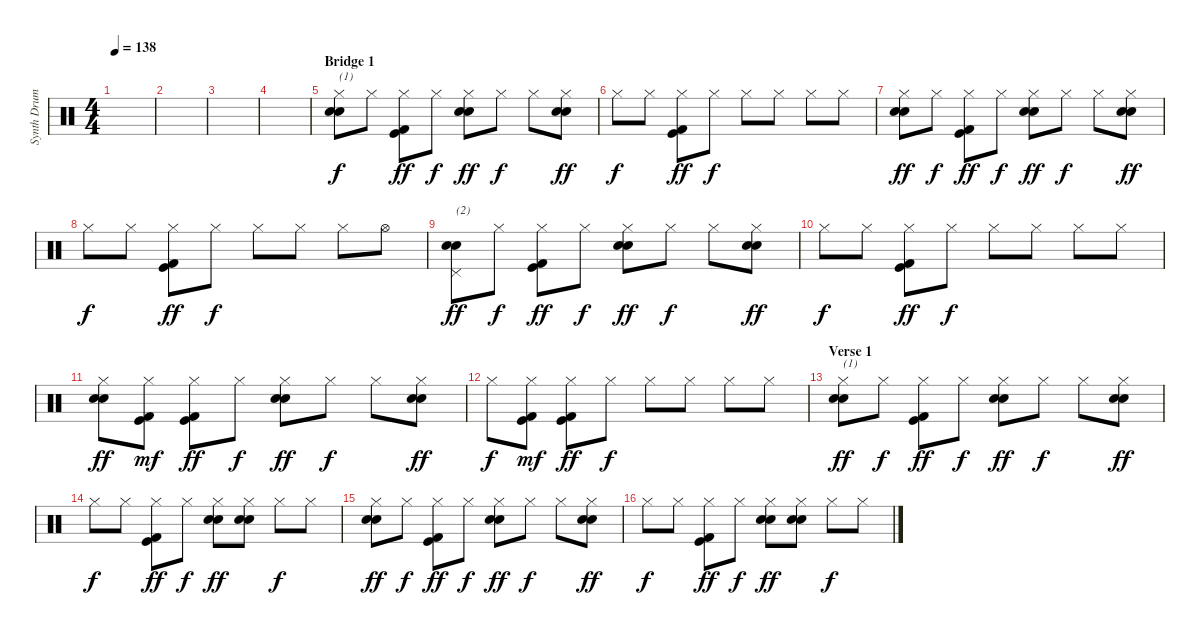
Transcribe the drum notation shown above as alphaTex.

\track ("Synth Drums" "Synth Drum") {instrument percussion}
\staff {score}
\articulation defaults
\ts (4 4)
\tempo 138
\clef neutral
\ks c
|
|
|
|
\section ("" "Bridge 1")
("Hi-Hat (closed)" "Electric Snare (hit)" "Snare (hit) 2").8{txt "(1)"} "Hi-Hat (closed)".8{dy f} ("Hi-Hat (closed)" "Kick (hit)" "Kick (hit) 2").8{dy ff} "Hi-Hat (closed)".8{dy f} ("Hi-Hat (closed)" "Electric Snare (hit)" "Snare (hit) 2").8{dy ff} "Hi-Hat (closed)".8{dy f} "Hi-Hat (closed)".8 ("Hi-Hat (closed)" "Electric Snare (hit)" "Snare (hit) 2").8{dy ff} |
"Hi-Hat (closed)".8{dy f} "Hi-Hat (closed)".8 ("Hi-Hat (closed)" "Kick (hit)" "Kick (hit) 2").8{dy ff} "Hi-Hat (closed)".8{dy f} "Hi-Hat (closed)".8 "Hi-Hat (closed)".8 "Hi-Hat (closed)".8 "Hi-Hat (closed)".8 |
("Hi-Hat (closed)" "Electric Snare (hit)" "Snare (hit) 2").8{dy ff} "Hi-Hat (closed)".8{dy f} ("Hi-Hat (closed)" "Kick (hit)" "Kick (hit) 2").8{dy ff} "Hi-Hat (closed)".8{dy f} ("Hi-Hat (closed)" "Electric Snare (hit)" "Snare (hit) 2").8{dy ff} "Hi-Hat (closed)".8{dy f} "Hi-Hat (closed)".8 ("Hi-Hat (closed)" "Electric Snare (hit)" "Snare (hit) 2").8{dy ff} |
"Hi-Hat (closed)".8{dy f} "Hi-Hat (closed)".8 ("Hi-Hat (closed)" "Kick (hit)" "Kick (hit) 2").8{dy ff} "Hi-Hat (closed)".8{dy f} "Hi-Hat (closed)".8 "Hi-Hat (closed)".8 "Hi-Hat (closed)".8 "Hi-Hat (open)".8 |
("Pedal Hi-Hat (hit)" "Electric Snare (hit)" "Snare (hit) 2").8{txt "(2)" dy ff} "Hi-Hat (closed)".8{dy f} ("Hi-Hat (closed)" "Kick (hit)" "Kick (hit) 2").8{dy ff} "Hi-Hat (closed)".8{dy f} ("Hi-Hat (closed)" "Electric Snare (hit)" "Snare (hit) 2").8{dy ff} "Hi-Hat (closed)".8{dy f} "Hi-Hat (closed)".8 ("Hi-Hat (closed)" "Electric Snare (hit)" "Snare (hit) 2").8{dy ff} |
"Hi-Hat (closed)".8{dy f} "Hi-Hat (closed)".8 ("Hi-Hat (closed)" "Kick (hit)" "Kick (hit) 2").8{dy ff} "Hi-Hat (closed)".8{dy f} "Hi-Hat (closed)".8 "Hi-Hat (closed)".8 "Hi-Hat (closed)".8 "Hi-Hat (closed)".8 |
("Hi-Hat (closed)" "Electric Snare (hit)" "Snare (hit) 2").8{dy ff} ("Hi-Hat (closed)" "Kick (hit)" "Kick (hit) 2").8{dy mf} ("Hi-Hat (closed)" "Kick (hit)" "Kick (hit) 2").8{dy ff} "Hi-Hat (closed)".8{dy f} ("Hi-Hat (closed)" "Electric Snare (hit)" "Snare (hit) 2").8{dy ff} "Hi-Hat (closed)".8{dy f} "Hi-Hat (closed)".8 ("Hi-Hat (closed)" "Electric Snare (hit)" "Snare (hit) 2").8{dy ff} |
"Hi-Hat (closed)".8{dy f} ("Hi-Hat (closed)" "Kick (hit)" "Kick (hit) 2").8{dy mf} ("Hi-Hat (closed)" "Kick (hit)" "Kick (hit) 2").8{dy ff} "Hi-Hat (closed)".8{dy f} "Hi-Hat (closed)".8 "Hi-Hat (closed)".8 "Hi-Hat (closed)".8 "Hi-Hat (closed)".8 |
\section ("" "Verse 1")
("Hi-Hat (closed)" "Electric Snare (hit)" "Snare (hit) 2").8{txt "(1)" dy ff} "Hi-Hat (closed)".8{dy f} ("Hi-Hat (closed)" "Kick (hit)" "Kick (hit) 2").8{dy ff} "Hi-Hat (closed)".8{dy f} ("Hi-Hat (closed)" "Electric Snare (hit)" "Snare (hit) 2").8{dy ff} "Hi-Hat (closed)".8{dy f} "Hi-Hat (closed)".8 ("Hi-Hat (closed)" "Electric Snare (hit)" "Snare (hit) 2").8{dy ff} |
"Hi-Hat (closed)".8{dy f} "Hi-Hat (closed)".8 ("Hi-Hat (closed)" "Kick (hit)" "Kick (hit) 2").8{dy ff} "Hi-Hat (closed)".8{dy f} ("Hi-Hat (closed)" "Electric Snare (hit)" "Snare (hit) 2").8{dy ff} ("Hi-Hat (closed)" "Electric Snare (hit)" "Snare (hit) 2").8 "Hi-Hat (closed)".8{dy f} "Hi-Hat (closed)".8 |
("Hi-Hat (closed)" "Electric Snare (hit)" "Snare (hit) 2").8{dy ff} "Hi-Hat (closed)".8{dy f} ("Hi-Hat (closed)" "Kick (hit)" "Kick (hit) 2").8{dy ff} "Hi-Hat (closed)".8{dy f} ("Hi-Hat (closed)" "Electric Snare (hit)" "Snare (hit) 2").8{dy ff} "Hi-Hat (closed)".8{dy f} "Hi-Hat (closed)".8 ("Hi-Hat (closed)" "Electric Snare (hit)" "Snare (hit) 2").8{dy ff} |
"Hi-Hat (closed)".8{dy f} "Hi-Hat (closed)".8 ("Hi-Hat (closed)" "Kick (hit)" "Kick (hit) 2").8{dy ff} "Hi-Hat (closed)".8{dy f} ("Hi-Hat (closed)" "Electric Snare (hit)" "Snare (hit) 2").8{dy ff} ("Hi-Hat (closed)" "Electric Snare (hit)" "Snare (hit) 2").8 "Hi-Hat (closed)".8{dy f} "Hi-Hat (closed)".8
